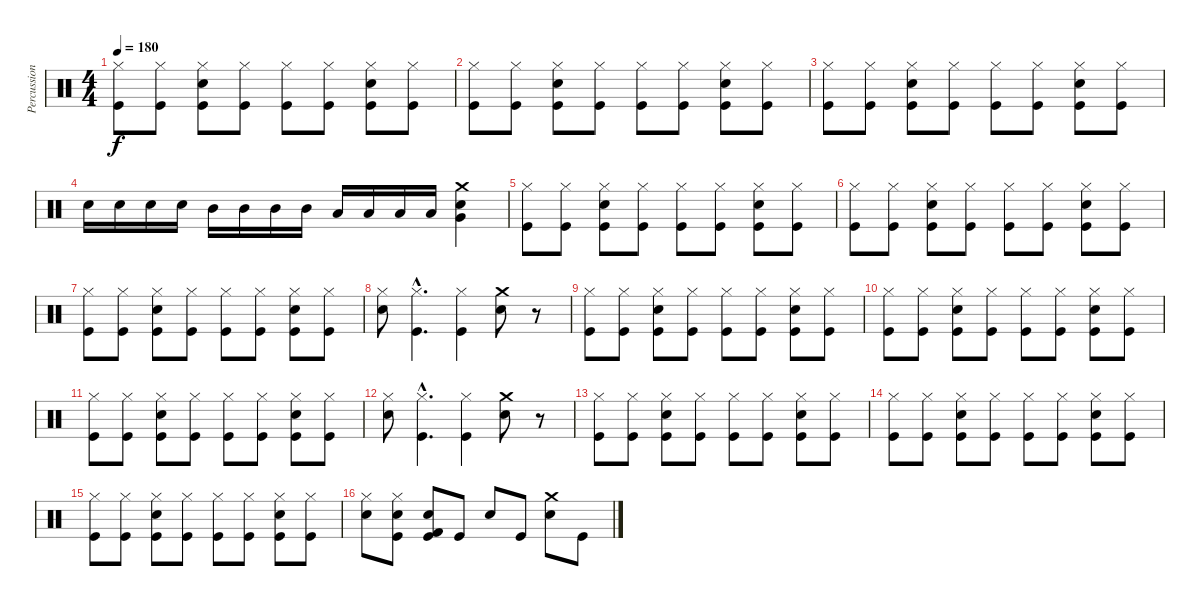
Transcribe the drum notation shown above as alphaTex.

\track ("Percussion" "Percussion") {instrument percussion}
\staff {score}
\articulation defaults
\ts (4 4)
\tempo 180
\clef neutral
\ks c
("Hi-Hat (closed)" "Kick (hit)").8{dy f} ("Hi-Hat (closed)" "Kick (hit)").8 ("Hi-Hat (closed)" "Snare (hit) 2" "Kick (hit)").8 ("Hi-Hat (closed)" "Kick (hit)").8 ("Hi-Hat (closed)" "Kick (hit)").8 ("Hi-Hat (closed)" "Kick (hit)").8 ("Hi-Hat (closed)" "Snare (hit) 2" "Kick (hit)").8 ("Hi-Hat (closed)" "Kick (hit)").8 |
("Hi-Hat (closed)" "Kick (hit)").8 ("Hi-Hat (closed)" "Kick (hit)").8 ("Hi-Hat (closed)" "Snare (hit) 2" "Kick (hit)").8 ("Hi-Hat (closed)" "Kick (hit)").8 ("Hi-Hat (closed)" "Kick (hit)").8 ("Hi-Hat (closed)" "Kick (hit)").8 ("Hi-Hat (closed)" "Snare (hit) 2" "Kick (hit)").8 ("Hi-Hat (closed)" "Kick (hit)").8 |
("Hi-Hat (closed)" "Kick (hit)").8 ("Hi-Hat (closed)" "Kick (hit)").8 ("Hi-Hat (closed)" "Snare (hit) 2" "Kick (hit)").8 ("Hi-Hat (closed)" "Kick (hit)").8 ("Hi-Hat (closed)" "Kick (hit)").8 ("Hi-Hat (closed)" "Kick (hit)").8 ("Hi-Hat (closed)" "Snare (hit) 2" "Kick (hit)").8 ("Hi-Hat (closed)" "Kick (hit)").8 |
"Snare (hit) 2".16 "Snare (hit) 2".16 "Snare (hit) 2".16 "Snare (hit) 2".16 "Mid Tom (hit)".16 "Mid Tom (hit)".16 "Mid Tom (hit)".16 "Mid Tom (hit)".16 "Low Tom (hit)".16 "Low Tom (hit)".16 "Low Tom (hit)".16 "Low Tom (hit)".16 ("Very Low Tom (hit)" "Snare (hit) 2" "Crash medium (hit)").4 |
("Hi-Hat (closed)" "Kick (hit)").8 ("Hi-Hat (closed)" "Kick (hit)").8 ("Hi-Hat (closed)" "Snare (hit) 2" "Kick (hit)").8 ("Hi-Hat (closed)" "Kick (hit)").8 ("Hi-Hat (closed)" "Kick (hit)").8 ("Hi-Hat (closed)" "Kick (hit)").8 ("Hi-Hat (closed)" "Snare (hit) 2" "Kick (hit)").8 ("Hi-Hat (closed)" "Kick (hit)").8 |
("Hi-Hat (closed)" "Kick (hit)").8 ("Hi-Hat (closed)" "Kick (hit)").8 ("Hi-Hat (closed)" "Snare (hit) 2" "Kick (hit)").8 ("Hi-Hat (closed)" "Kick (hit)").8 ("Hi-Hat (closed)" "Kick (hit)").8 ("Hi-Hat (closed)" "Kick (hit)").8 ("Hi-Hat (closed)" "Snare (hit) 2" "Kick (hit)").8 ("Hi-Hat (closed)" "Kick (hit)").8 |
("Hi-Hat (closed)" "Kick (hit)").8 ("Hi-Hat (closed)" "Kick (hit)").8 ("Hi-Hat (closed)" "Snare (hit) 2" "Kick (hit)").8 ("Hi-Hat (closed)" "Kick (hit)").8 ("Hi-Hat (closed)" "Kick (hit)").8 ("Hi-Hat (closed)" "Kick (hit)").8 ("Hi-Hat (closed)" "Snare (hit) 2" "Kick (hit)").8 ("Hi-Hat (closed)" "Kick (hit)").8 |
("Hi-Hat (closed)" "Snare (hit) 2").8 ("Hi-Hat (closed)"{hac} "Kick (hit)"{hac}).4{d} ("Hi-Hat (closed)" "Kick (hit)").4 ("Crash medium (hit)" "Snare (hit) 2").8 r.8 |
("Hi-Hat (closed)" "Kick (hit)").8 ("Hi-Hat (closed)" "Kick (hit)").8 ("Hi-Hat (closed)" "Snare (hit) 2" "Kick (hit)").8 ("Hi-Hat (closed)" "Kick (hit)").8 ("Hi-Hat (closed)" "Kick (hit)").8 ("Hi-Hat (closed)" "Kick (hit)").8 ("Hi-Hat (closed)" "Snare (hit) 2" "Kick (hit)").8 ("Hi-Hat (closed)" "Kick (hit)").8 |
("Hi-Hat (closed)" "Kick (hit)").8 ("Hi-Hat (closed)" "Kick (hit)").8 ("Hi-Hat (closed)" "Snare (hit) 2" "Kick (hit)").8 ("Hi-Hat (closed)" "Kick (hit)").8 ("Hi-Hat (closed)" "Kick (hit)").8 ("Hi-Hat (closed)" "Kick (hit)").8 ("Hi-Hat (closed)" "Snare (hit) 2" "Kick (hit)").8 ("Hi-Hat (closed)" "Kick (hit)").8 |
("Hi-Hat (closed)" "Kick (hit)").8 ("Hi-Hat (closed)" "Kick (hit)").8 ("Hi-Hat (closed)" "Snare (hit) 2" "Kick (hit)").8 ("Hi-Hat (closed)" "Kick (hit)").8 ("Hi-Hat (closed)" "Kick (hit)").8 ("Hi-Hat (closed)" "Kick (hit)").8 ("Hi-Hat (closed)" "Snare (hit) 2" "Kick (hit)").8 ("Hi-Hat (closed)" "Kick (hit)").8 |
("Hi-Hat (closed)" "Snare (hit) 2").8 ("Hi-Hat (closed)"{hac} "Kick (hit)"{hac}).4{d} ("Hi-Hat (closed)" "Kick (hit)").4 ("Crash medium (hit)" "Snare (hit) 2").8 r.8 |
("Hi-Hat (closed)" "Kick (hit)").8 ("Hi-Hat (closed)" "Kick (hit)").8 ("Hi-Hat (closed)" "Snare (hit) 2" "Kick (hit)").8 ("Hi-Hat (closed)" "Kick (hit)").8 ("Hi-Hat (closed)" "Kick (hit)").8 ("Hi-Hat (closed)" "Kick (hit)").8 ("Hi-Hat (closed)" "Snare (hit) 2" "Kick (hit)").8 ("Hi-Hat (closed)" "Kick (hit)").8 |
("Hi-Hat (closed)" "Kick (hit)").8 ("Hi-Hat (closed)" "Kick (hit)").8 ("Hi-Hat (closed)" "Snare (hit) 2" "Kick (hit)").8 ("Hi-Hat (closed)" "Kick (hit)").8 ("Hi-Hat (closed)" "Kick (hit)").8 ("Hi-Hat (closed)" "Kick (hit)").8 ("Hi-Hat (closed)" "Snare (hit) 2" "Kick (hit)").8 ("Hi-Hat (closed)" "Kick (hit)").8 |
("Hi-Hat (closed)" "Kick (hit)").8 ("Hi-Hat (closed)" "Kick (hit)").8 ("Hi-Hat (closed)" "Snare (hit) 2" "Kick (hit)").8 ("Hi-Hat (closed)" "Kick (hit)").8 ("Hi-Hat (closed)" "Kick (hit)").8 ("Hi-Hat (closed)" "Kick (hit)").8 ("Hi-Hat (closed)" "Snare (hit) 2" "Kick (hit)").8 ("Hi-Hat (closed)" "Kick (hit)").8 |
("Hi-Hat (closed)" "Snare (hit) 2").8 ("Hi-Hat (closed)" "Snare (hit) 2" "Kick (hit)").8 ("Snare (hit) 2" "Kick (hit) 2" "Kick (hit)").8 "Kick (hit)".8 "Snare (hit) 2".8 "Kick (hit)".8 ("Crash medium (hit)" "Snare (hit) 2").8 "Kick (hit)".8
